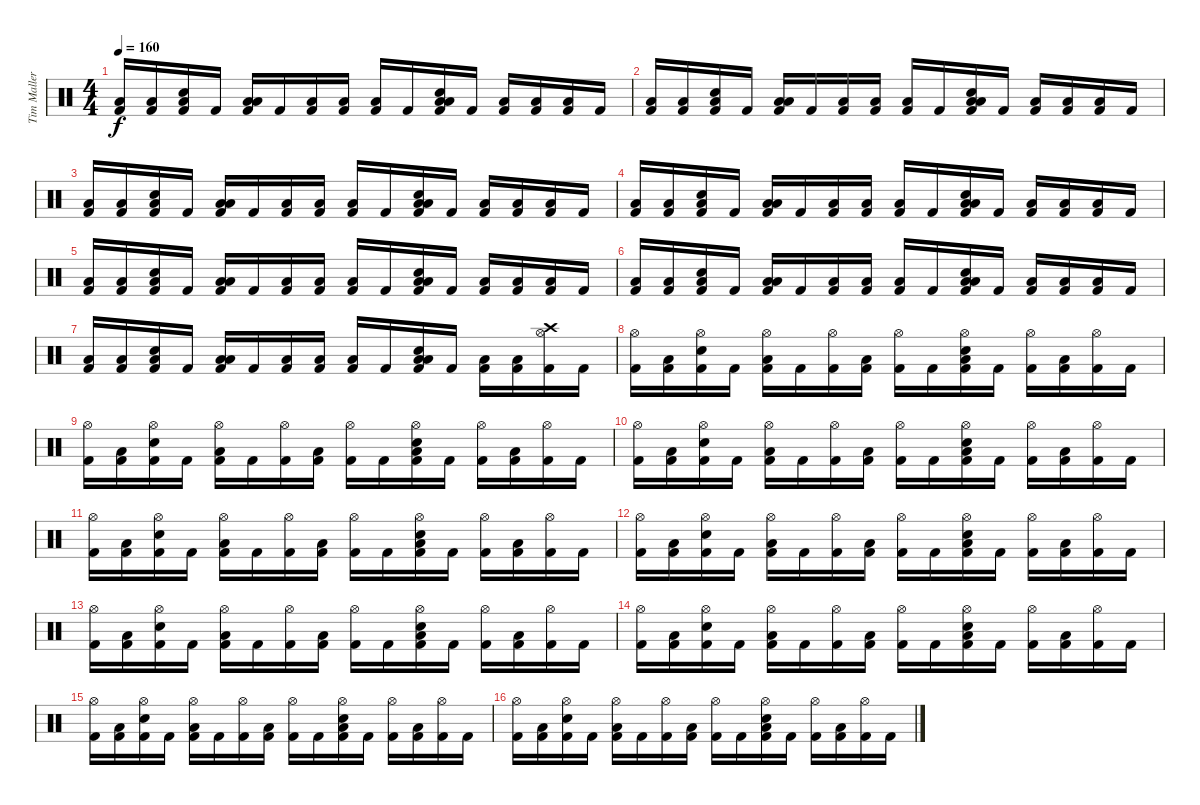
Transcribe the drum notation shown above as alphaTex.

\track ("Tim Mallere" "Tim Maller") {instrument percussion}
\staff {score}
\articulation defaults
\ts (4 4)
\tempo 160
\clef neutral
\ks c
("Low Floor Tom (hit)" "Kick (hit) 2").16{dy f} ("Low Tom (hit)" "Kick (hit) 2").16 ("Low Floor Tom (hit)" "Electric Snare (hit)" "Kick (hit) 2").16 "Kick (hit) 2".16 ("Low Floor Tom (hit)" "Low Tom (hit)" "Kick (hit) 2").16 "Kick (hit) 2".16 ("Low Floor Tom (hit)" "Kick (hit) 2").16 ("Low Tom (hit)" "Kick (hit) 2").16 ("Low Floor Tom (hit)" "Kick (hit) 2").16 "Kick (hit) 2".16 ("Low Floor Tom (hit)" "Low Tom (hit)" "Electric Snare (hit)" "Kick (hit) 2").16 "Kick (hit) 2".16 ("Low Floor Tom (hit)" "Kick (hit) 2").16 ("Low Tom (hit)" "Kick (hit) 2").16 ("Low Floor Tom (hit)" "Kick (hit) 2").16 "Kick (hit) 2".16 |
("Low Floor Tom (hit)" "Kick (hit) 2").16 ("Low Tom (hit)" "Kick (hit) 2").16 ("Low Floor Tom (hit)" "Electric Snare (hit)" "Kick (hit) 2").16 "Kick (hit) 2".16 ("Low Floor Tom (hit)" "Low Tom (hit)" "Kick (hit) 2").16 "Kick (hit) 2".16 ("Low Floor Tom (hit)" "Kick (hit) 2").16 ("Low Tom (hit)" "Kick (hit) 2").16 ("Low Floor Tom (hit)" "Kick (hit) 2").16 "Kick (hit) 2".16 ("Low Floor Tom (hit)" "Low Tom (hit)" "Electric Snare (hit)" "Kick (hit) 2").16 "Kick (hit) 2".16 ("Low Floor Tom (hit)" "Kick (hit) 2").16 ("Low Tom (hit)" "Kick (hit) 2").16 ("Low Floor Tom (hit)" "Kick (hit) 2").16 "Kick (hit) 2".16 |
("Low Floor Tom (hit)" "Kick (hit) 2").16 ("Low Tom (hit)" "Kick (hit) 2").16 ("Low Floor Tom (hit)" "Electric Snare (hit)" "Kick (hit) 2").16 "Kick (hit) 2".16 ("Low Floor Tom (hit)" "Low Tom (hit)" "Kick (hit) 2").16 "Kick (hit) 2".16 ("Low Floor Tom (hit)" "Kick (hit) 2").16 ("Low Tom (hit)" "Kick (hit) 2").16 ("Low Floor Tom (hit)" "Kick (hit) 2").16 "Kick (hit) 2".16 ("Low Floor Tom (hit)" "Low Tom (hit)" "Electric Snare (hit)" "Kick (hit) 2").16 "Kick (hit) 2".16 ("Low Floor Tom (hit)" "Kick (hit) 2").16 ("Low Tom (hit)" "Kick (hit) 2").16 ("Low Floor Tom (hit)" "Kick (hit) 2").16 "Kick (hit) 2".16 |
("Low Floor Tom (hit)" "Kick (hit) 2").16 ("Low Tom (hit)" "Kick (hit) 2").16 ("Low Floor Tom (hit)" "Electric Snare (hit)" "Kick (hit) 2").16 "Kick (hit) 2".16 ("Low Floor Tom (hit)" "Low Tom (hit)" "Kick (hit) 2").16 "Kick (hit) 2".16 ("Low Floor Tom (hit)" "Kick (hit) 2").16 ("Low Tom (hit)" "Kick (hit) 2").16 ("Low Floor Tom (hit)" "Kick (hit) 2").16 "Kick (hit) 2".16 ("Low Floor Tom (hit)" "Low Tom (hit)" "Electric Snare (hit)" "Kick (hit) 2").16 "Kick (hit) 2".16 ("Low Floor Tom (hit)" "Kick (hit) 2").16 ("Low Tom (hit)" "Kick (hit) 2").16 ("Low Floor Tom (hit)" "Kick (hit) 2").16 "Kick (hit) 2".16 |
("Low Floor Tom (hit)" "Kick (hit) 2").16 ("Low Tom (hit)" "Kick (hit) 2").16 ("Low Floor Tom (hit)" "Electric Snare (hit)" "Kick (hit) 2").16 "Kick (hit) 2".16 ("Low Floor Tom (hit)" "Low Tom (hit)" "Kick (hit) 2").16 "Kick (hit) 2".16 ("Low Floor Tom (hit)" "Kick (hit) 2").16 ("Low Tom (hit)" "Kick (hit) 2").16 ("Low Floor Tom (hit)" "Kick (hit) 2").16 "Kick (hit) 2".16 ("Low Floor Tom (hit)" "Low Tom (hit)" "Electric Snare (hit)" "Kick (hit) 2").16 "Kick (hit) 2".16 ("Low Floor Tom (hit)" "Kick (hit) 2").16 ("Low Tom (hit)" "Kick (hit) 2").16 ("Low Floor Tom (hit)" "Kick (hit) 2").16 "Kick (hit) 2".16 |
("Low Floor Tom (hit)" "Kick (hit) 2").16 ("Low Tom (hit)" "Kick (hit) 2").16 ("Low Floor Tom (hit)" "Electric Snare (hit)" "Kick (hit) 2").16 "Kick (hit) 2".16 ("Low Floor Tom (hit)" "Low Tom (hit)" "Kick (hit) 2").16 "Kick (hit) 2".16 ("Low Floor Tom (hit)" "Kick (hit) 2").16 ("Low Tom (hit)" "Kick (hit) 2").16 ("Low Floor Tom (hit)" "Kick (hit) 2").16 "Kick (hit) 2".16 ("Low Floor Tom (hit)" "Low Tom (hit)" "Electric Snare (hit)" "Kick (hit) 2").16 "Kick (hit) 2".16 ("Low Floor Tom (hit)" "Kick (hit) 2").16 ("Low Tom (hit)" "Kick (hit) 2").16 ("Low Floor Tom (hit)" "Kick (hit) 2").16 "Kick (hit) 2".16 |
("Low Floor Tom (hit)" "Kick (hit) 2").16 ("Low Tom (hit)" "Kick (hit) 2").16 ("Low Floor Tom (hit)" "Electric Snare (hit)" "Kick (hit) 2").16 "Kick (hit) 2".16 ("Low Floor Tom (hit)" "Low Tom (hit)" "Kick (hit) 2").16 "Kick (hit) 2".16 ("Low Floor Tom (hit)" "Kick (hit) 2").16 ("Low Tom (hit)" "Kick (hit) 2").16 ("Low Floor Tom (hit)" "Kick (hit) 2").16 "Kick (hit) 2".16 ("Low Floor Tom (hit)" "Low Tom (hit)" "Electric Snare (hit)" "Kick (hit) 2").16 "Kick (hit) 2".16 ("Low Floor Tom (hit)" "Kick (hit) 2").16 ("Low Tom (hit)" "Kick (hit) 2").16 ("Crash high (hit)" "Hi-Hat (open)" "Kick (hit) 2").16 "Kick (hit) 2".16 |
("Hi-Hat (open)" "Kick (hit) 2").16 ("Low Tom (hit)" "Kick (hit) 2").16 ("Hi-Hat (open)" "Electric Snare (hit)" "Kick (hit) 2").16 "Kick (hit) 2".16 ("Hi-Hat (open)" "Low Tom (hit)" "Kick (hit) 2").16 "Kick (hit) 2".16 ("Hi-Hat (open)" "Kick (hit) 2").16 ("Low Tom (hit)" "Kick (hit) 2").16 ("Hi-Hat (open)" "Kick (hit) 2").16 "Kick (hit) 2".16 ("Hi-Hat (open)" "Low Tom (hit)" "Electric Snare (hit)" "Kick (hit) 2").16 "Kick (hit) 2".16 ("Hi-Hat (open)" "Kick (hit) 2").16 ("Low Tom (hit)" "Kick (hit) 2").16 ("Hi-Hat (open)" "Kick (hit) 2").16 "Kick (hit) 2".16 |
("Hi-Hat (open)" "Kick (hit) 2").16 ("Low Tom (hit)" "Kick (hit) 2").16 ("Hi-Hat (open)" "Electric Snare (hit)" "Kick (hit) 2").16 "Kick (hit) 2".16 ("Hi-Hat (open)" "Low Tom (hit)" "Kick (hit) 2").16 "Kick (hit) 2".16 ("Hi-Hat (open)" "Kick (hit) 2").16 ("Low Tom (hit)" "Kick (hit) 2").16 ("Hi-Hat (open)" "Kick (hit) 2").16 "Kick (hit) 2".16 ("Hi-Hat (open)" "Low Tom (hit)" "Electric Snare (hit)" "Kick (hit) 2").16 "Kick (hit) 2".16 ("Hi-Hat (open)" "Kick (hit) 2").16 ("Low Tom (hit)" "Kick (hit) 2").16 ("Hi-Hat (open)" "Kick (hit) 2").16 "Kick (hit) 2".16 |
("Hi-Hat (open)" "Kick (hit) 2").16 ("Low Tom (hit)" "Kick (hit) 2").16 ("Hi-Hat (open)" "Electric Snare (hit)" "Kick (hit) 2").16 "Kick (hit) 2".16 ("Hi-Hat (open)" "Low Tom (hit)" "Kick (hit) 2").16 "Kick (hit) 2".16 ("Hi-Hat (open)" "Kick (hit) 2").16 ("Low Tom (hit)" "Kick (hit) 2").16 ("Hi-Hat (open)" "Kick (hit) 2").16 "Kick (hit) 2".16 ("Hi-Hat (open)" "Low Tom (hit)" "Electric Snare (hit)" "Kick (hit) 2").16 "Kick (hit) 2".16 ("Hi-Hat (open)" "Kick (hit) 2").16 ("Low Tom (hit)" "Kick (hit) 2").16 ("Hi-Hat (open)" "Kick (hit) 2").16 "Kick (hit) 2".16 |
("Hi-Hat (open)" "Kick (hit) 2").16 ("Low Tom (hit)" "Kick (hit) 2").16 ("Hi-Hat (open)" "Electric Snare (hit)" "Kick (hit) 2").16 "Kick (hit) 2".16 ("Hi-Hat (open)" "Low Tom (hit)" "Kick (hit) 2").16 "Kick (hit) 2".16 ("Hi-Hat (open)" "Kick (hit) 2").16 ("Low Tom (hit)" "Kick (hit) 2").16 ("Hi-Hat (open)" "Kick (hit) 2").16 "Kick (hit) 2".16 ("Hi-Hat (open)" "Low Tom (hit)" "Electric Snare (hit)" "Kick (hit) 2").16 "Kick (hit) 2".16 ("Hi-Hat (open)" "Kick (hit) 2").16 ("Low Tom (hit)" "Kick (hit) 2").16 ("Hi-Hat (open)" "Kick (hit) 2").16 "Kick (hit) 2".16 |
("Hi-Hat (open)" "Kick (hit) 2").16 ("Low Tom (hit)" "Kick (hit) 2").16 ("Hi-Hat (open)" "Electric Snare (hit)" "Kick (hit) 2").16 "Kick (hit) 2".16 ("Hi-Hat (open)" "Low Tom (hit)" "Kick (hit) 2").16 "Kick (hit) 2".16 ("Hi-Hat (open)" "Kick (hit) 2").16 ("Low Tom (hit)" "Kick (hit) 2").16 ("Hi-Hat (open)" "Kick (hit) 2").16 "Kick (hit) 2".16 ("Hi-Hat (open)" "Low Tom (hit)" "Electric Snare (hit)" "Kick (hit) 2").16 "Kick (hit) 2".16 ("Hi-Hat (open)" "Kick (hit) 2").16 ("Low Tom (hit)" "Kick (hit) 2").16 ("Hi-Hat (open)" "Kick (hit) 2").16 "Kick (hit) 2".16 |
("Hi-Hat (open)" "Kick (hit) 2").16 ("Low Tom (hit)" "Kick (hit) 2").16 ("Hi-Hat (open)" "Electric Snare (hit)" "Kick (hit) 2").16 "Kick (hit) 2".16 ("Hi-Hat (open)" "Low Tom (hit)" "Kick (hit) 2").16 "Kick (hit) 2".16 ("Hi-Hat (open)" "Kick (hit) 2").16 ("Low Tom (hit)" "Kick (hit) 2").16 ("Hi-Hat (open)" "Kick (hit) 2").16 "Kick (hit) 2".16 ("Hi-Hat (open)" "Low Tom (hit)" "Electric Snare (hit)" "Kick (hit) 2").16 "Kick (hit) 2".16 ("Hi-Hat (open)" "Kick (hit) 2").16 ("Low Tom (hit)" "Kick (hit) 2").16 ("Hi-Hat (open)" "Kick (hit) 2").16 "Kick (hit) 2".16 |
("Hi-Hat (open)" "Kick (hit) 2").16 ("Low Tom (hit)" "Kick (hit) 2").16 ("Hi-Hat (open)" "Electric Snare (hit)" "Kick (hit) 2").16 "Kick (hit) 2".16 ("Hi-Hat (open)" "Low Tom (hit)" "Kick (hit) 2").16 "Kick (hit) 2".16 ("Hi-Hat (open)" "Kick (hit) 2").16 ("Low Tom (hit)" "Kick (hit) 2").16 ("Hi-Hat (open)" "Kick (hit) 2").16 "Kick (hit) 2".16 ("Hi-Hat (open)" "Low Tom (hit)" "Electric Snare (hit)" "Kick (hit) 2").16 "Kick (hit) 2".16 ("Hi-Hat (open)" "Kick (hit) 2").16 ("Low Tom (hit)" "Kick (hit) 2").16 ("Hi-Hat (open)" "Kick (hit) 2").16 "Kick (hit) 2".16 |
("Hi-Hat (open)" "Kick (hit) 2").16 ("Low Tom (hit)" "Kick (hit) 2").16 ("Hi-Hat (open)" "Electric Snare (hit)" "Kick (hit) 2").16 "Kick (hit) 2".16 ("Hi-Hat (open)" "Low Tom (hit)" "Kick (hit) 2").16 "Kick (hit) 2".16 ("Hi-Hat (open)" "Kick (hit) 2").16 ("Low Tom (hit)" "Kick (hit) 2").16 ("Hi-Hat (open)" "Kick (hit) 2").16 "Kick (hit) 2".16 ("Hi-Hat (open)" "Low Tom (hit)" "Electric Snare (hit)" "Kick (hit) 2").16 "Kick (hit) 2".16 ("Hi-Hat (open)" "Kick (hit) 2").16 ("Low Tom (hit)" "Kick (hit) 2").16 ("Hi-Hat (open)" "Kick (hit) 2").16 "Kick (hit) 2".16 |
("Hi-Hat (open)" "Kick (hit) 2").16 ("Low Tom (hit)" "Kick (hit) 2").16 ("Hi-Hat (open)" "Electric Snare (hit)" "Kick (hit) 2").16 "Kick (hit) 2".16 ("Hi-Hat (open)" "Low Tom (hit)" "Kick (hit) 2").16 "Kick (hit) 2".16 ("Hi-Hat (open)" "Kick (hit) 2").16 ("Low Tom (hit)" "Kick (hit) 2").16 ("Hi-Hat (open)" "Kick (hit) 2").16 "Kick (hit) 2".16 ("Hi-Hat (open)" "Low Tom (hit)" "Electric Snare (hit)" "Kick (hit) 2").16 "Kick (hit) 2".16 ("Hi-Hat (open)" "Kick (hit) 2").16 ("Low Tom (hit)" "Kick (hit) 2").16 ("Hi-Hat (open)" "Kick (hit) 2").16 "Kick (hit) 2".16
